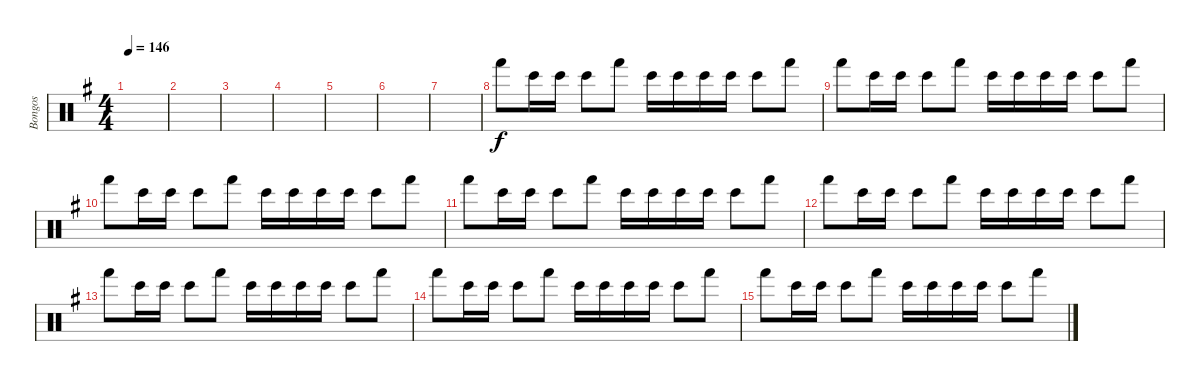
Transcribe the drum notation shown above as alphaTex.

\track ("Bongos" "Bongos") {instrument percussion}
\staff {score}
\articulation defaults
\ts (4 4)
\tempo 146
\clef neutral
\ks g
|
|
|
|
|
|
|
"Hand (hit)".8 "Bongo High (hit)".16 "Bongo High (hit)".16 "Bongo High (hit)".8 "Hand (hit)".8 "Bongo High (hit)".16 "Bongo High (hit)".16 "Bongo High (hit)".16 "Bongo High (hit)".16 "Bongo High (hit)".8 "Hand (hit)".8 |
"Hand (hit)".8 "Bongo High (hit)".16 "Bongo High (hit)".16 "Bongo High (hit)".8 "Hand (hit)".8 "Bongo High (hit)".16 "Bongo High (hit)".16 "Bongo High (hit)".16 "Bongo High (hit)".16 "Bongo High (hit)".8 "Hand (hit)".8 |
"Hand (hit)".8 "Bongo High (hit)".16 "Bongo High (hit)".16 "Bongo High (hit)".8 "Hand (hit)".8 "Bongo High (hit)".16 "Bongo High (hit)".16 "Bongo High (hit)".16 "Bongo High (hit)".16 "Bongo High (hit)".8 "Hand (hit)".8 |
"Hand (hit)".8 "Bongo High (hit)".16 "Bongo High (hit)".16 "Bongo High (hit)".8 "Hand (hit)".8 "Bongo High (hit)".16 "Bongo High (hit)".16 "Bongo High (hit)".16 "Bongo High (hit)".16 "Bongo High (hit)".8 "Hand (hit)".8 |
"Hand (hit)".8 "Bongo High (hit)".16 "Bongo High (hit)".16 "Bongo High (hit)".8 "Hand (hit)".8 "Bongo High (hit)".16 "Bongo High (hit)".16 "Bongo High (hit)".16 "Bongo High (hit)".16 "Bongo High (hit)".8 "Hand (hit)".8 |
"Hand (hit)".8 "Bongo High (hit)".16 "Bongo High (hit)".16 "Bongo High (hit)".8 "Hand (hit)".8 "Bongo High (hit)".16 "Bongo High (hit)".16 "Bongo High (hit)".16 "Bongo High (hit)".16 "Bongo High (hit)".8 "Hand (hit)".8 |
"Hand (hit)".8 "Bongo High (hit)".16 "Bongo High (hit)".16 "Bongo High (hit)".8 "Hand (hit)".8 "Bongo High (hit)".16 "Bongo High (hit)".16 "Bongo High (hit)".16 "Bongo High (hit)".16 "Bongo High (hit)".8 "Hand (hit)".8 |
"Hand (hit)".8 "Bongo High (hit)".16 "Bongo High (hit)".16 "Bongo High (hit)".8 "Hand (hit)".8 "Bongo High (hit)".16 "Bongo High (hit)".16 "Bongo High (hit)".16 "Bongo High (hit)".16 "Bongo High (hit)".8 "Hand (hit)".8
